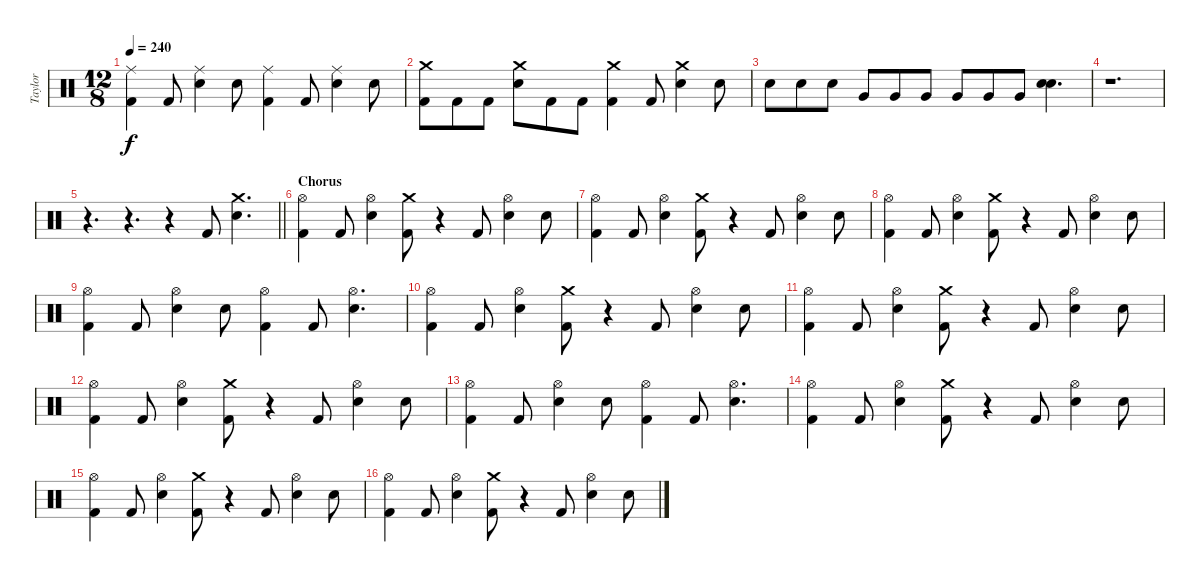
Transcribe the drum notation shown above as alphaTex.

\track ("Taylor" "Taylor") {instrument percussion}
\staff {score}
\articulation defaults
\ts (12 8)
\tempo 240
\clef neutral
\ks c
("Ride (middle)" "Kick (hit) 2").4{dy f} "Kick (hit) 2".8 ("Ride (middle)" "Snare (hit) 2").4 "Snare (hit) 2".8 ("Ride (middle)" "Kick (hit) 2").4 "Kick (hit) 2".8 ("Ride (middle)" "Snare (hit) 2").4 "Snare (hit) 2".8 |
("Crash medium (hit)" "Kick (hit) 2").8 "Kick (hit) 2".8 "Kick (hit) 2".8 ("Crash medium (hit)" "Snare (hit) 2").8 "Kick (hit) 2".8 "Kick (hit) 2".8 ("Crash medium (hit)" "Kick (hit) 2").4 "Kick (hit) 2".8 ("Crash medium (hit)" "Snare (hit) 2").4 "Snare (hit) 2".8 |
"Snare (hit) 2".8 "Snare (hit) 2".8 "Snare (hit) 2".8 "Very Low Tom (hit)".8 "Very Low Tom (hit)".8 "Very Low Tom (hit)".8 "Very Low Tom (hit)".8 "Very Low Tom (hit)".8 "Very Low Tom (hit)".8 ("Snare (hit) 2" "Snare (hit) 2").4{d} |
r.1{d} |
\barLineRight lightlight
r.4{d} r.4{d} r.4 "Kick (hit) 2".8 ("Crash medium (hit)" "Snare (hit) 2").4{d} |
\section ("" "Chorus")
("Hi-Hat (open)" "Kick (hit) 2").4 "Kick (hit) 2".8 ("Hi-Hat (open)" "Snare (hit) 2").4 ("Crash medium (hit)" "Kick (hit) 2").8 r.4 "Kick (hit) 2".8 ("Hi-Hat (open)" "Snare (hit) 2").4 "Snare (hit) 2".8 |
("Hi-Hat (open)" "Kick (hit) 2").4 "Kick (hit) 2".8 ("Hi-Hat (open)" "Snare (hit) 2").4 ("Crash medium (hit)" "Kick (hit) 2").8 r.4 "Kick (hit) 2".8 ("Hi-Hat (open)" "Snare (hit) 2").4 "Snare (hit) 2".8 |
("Hi-Hat (open)" "Kick (hit) 2").4 "Kick (hit) 2".8 ("Hi-Hat (open)" "Snare (hit) 2").4 ("Crash medium (hit)" "Kick (hit) 2").8 r.4 "Kick (hit) 2".8 ("Hi-Hat (open)" "Snare (hit) 2").4 "Snare (hit) 2".8 |
("Hi-Hat (open)" "Kick (hit) 2").4 "Kick (hit) 2".8 ("Hi-Hat (open)" "Snare (hit) 2").4 "Snare (hit) 2".8 ("Hi-Hat (open)" "Kick (hit) 2").4 "Kick (hit) 2".8 ("Hi-Hat (open)" "Snare (hit) 2").4{d} |
("Hi-Hat (open)" "Kick (hit) 2").4 "Kick (hit) 2".8 ("Hi-Hat (open)" "Snare (hit) 2").4 ("Crash medium (hit)" "Kick (hit) 2").8 r.4 "Kick (hit) 2".8 ("Hi-Hat (open)" "Snare (hit) 2").4 "Snare (hit) 2".8 |
("Hi-Hat (open)" "Kick (hit) 2").4 "Kick (hit) 2".8 ("Hi-Hat (open)" "Snare (hit) 2").4 ("Crash medium (hit)" "Kick (hit) 2").8 r.4 "Kick (hit) 2".8 ("Hi-Hat (open)" "Snare (hit) 2").4 "Snare (hit) 2".8 |
("Hi-Hat (open)" "Kick (hit) 2").4 "Kick (hit) 2".8 ("Hi-Hat (open)" "Snare (hit) 2").4 ("Crash medium (hit)" "Kick (hit) 2").8 r.4 "Kick (hit) 2".8 ("Hi-Hat (open)" "Snare (hit) 2").4 "Snare (hit) 2".8 |
("Hi-Hat (open)" "Kick (hit) 2").4 "Kick (hit) 2".8 ("Hi-Hat (open)" "Snare (hit) 2").4 "Snare (hit) 2".8 ("Hi-Hat (open)" "Kick (hit) 2").4 "Kick (hit) 2".8 ("Hi-Hat (open)" "Snare (hit) 2").4{d} |
("Hi-Hat (open)" "Kick (hit) 2").4 "Kick (hit) 2".8 ("Hi-Hat (open)" "Snare (hit) 2").4 ("Crash medium (hit)" "Kick (hit) 2").8 r.4 "Kick (hit) 2".8 ("Hi-Hat (open)" "Snare (hit) 2").4 "Snare (hit) 2".8 |
("Hi-Hat (open)" "Kick (hit) 2").4 "Kick (hit) 2".8 ("Hi-Hat (open)" "Snare (hit) 2").4 ("Crash medium (hit)" "Kick (hit) 2").8 r.4 "Kick (hit) 2".8 ("Hi-Hat (open)" "Snare (hit) 2").4 "Snare (hit) 2".8 |
("Hi-Hat (open)" "Kick (hit) 2").4 "Kick (hit) 2".8 ("Hi-Hat (open)" "Snare (hit) 2").4 ("Crash medium (hit)" "Kick (hit) 2").8 r.4 "Kick (hit) 2".8 ("Hi-Hat (open)" "Snare (hit) 2").4 "Snare (hit) 2".8
